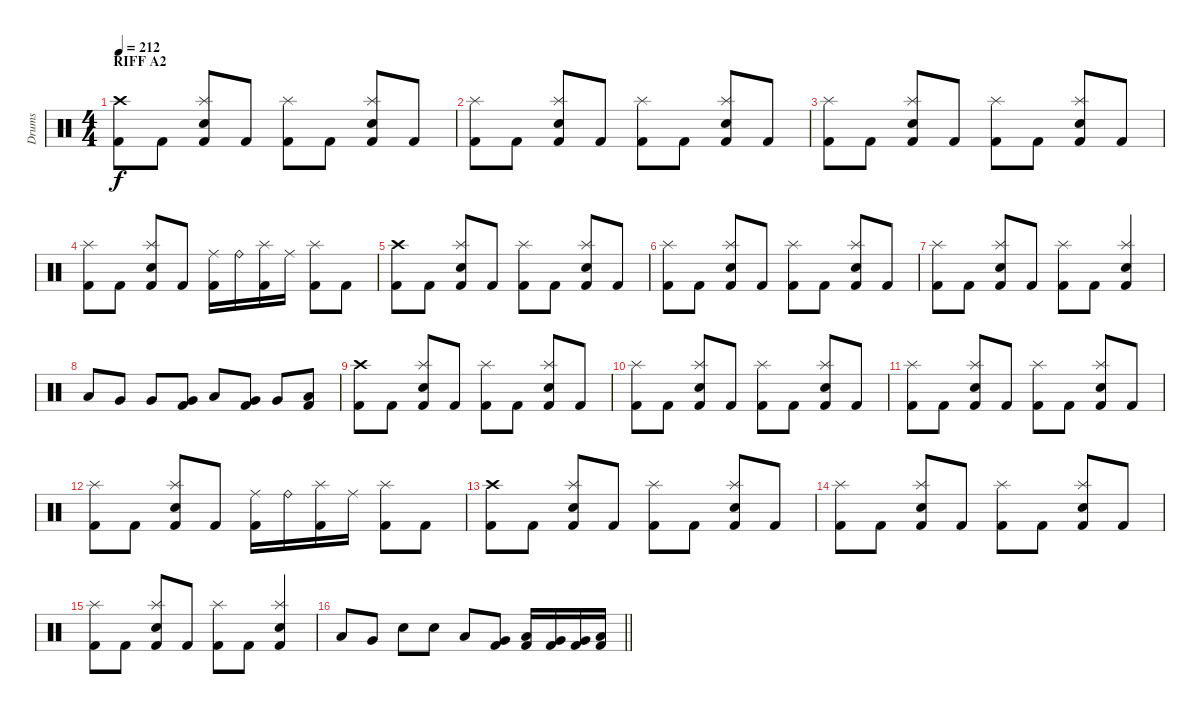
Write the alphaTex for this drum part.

\track ("Drums" "Drums") {instrument percussion}
\staff {score}
\articulation defaults
\ts (4 4)
\section ("" "RIFF A2")
\tempo 212
\clef neutral
\ks c
("Crash high (hit)" "Kick (hit) 2").8{dy f} "Kick (hit) 2".8 ("Splash (hit)" "Snare (hit) 2" "Kick (hit) 2").8 "Kick (hit) 2".8 ("Splash (hit)" "Kick (hit) 2").8 "Kick (hit) 2".8 ("Splash (hit)" "Snare (hit) 2" "Kick (hit) 2").8 "Kick (hit) 2".8 |
("Splash (hit)" "Kick (hit) 2").8 "Kick (hit) 2".8 ("Splash (hit)" "Snare (hit) 2" "Kick (hit) 2").8 "Kick (hit) 2".8 ("Splash (hit)" "Kick (hit) 2").8 "Kick (hit) 2".8 ("Splash (hit)" "Snare (hit) 2" "Kick (hit) 2").8 "Kick (hit) 2".8 |
("Splash (hit)" "Kick (hit) 2").8 "Kick (hit) 2".8 ("Splash (hit)" "Snare (hit) 2" "Kick (hit) 2").8 "Kick (hit) 2".8 ("Splash (hit)" "Kick (hit) 2").8 "Kick (hit) 2".8 ("Splash (hit)" "Snare (hit) 2" "Kick (hit) 2").8 "Kick (hit) 2".8 |
("Splash (hit)" "Kick (hit) 2").8 "Kick (hit) 2".8 ("Splash (hit)" "Snare (hit) 2" "Kick (hit) 2").8 "Kick (hit) 2".8 ("Ride (middle)" "Kick (hit) 2").16 "Ride (bell)".16 ("Splash (hit)" "Kick (hit) 2").16 "Ride (middle)".16 ("Splash (hit)" "Kick (hit) 2").8 "Kick (hit) 2".8 |
("Crash high (hit)" "Kick (hit) 2").8 "Kick (hit) 2".8 ("Splash (hit)" "Snare (hit) 2" "Kick (hit) 2").8 "Kick (hit) 2".8 ("Splash (hit)" "Kick (hit) 2").8 "Kick (hit) 2".8 ("Splash (hit)" "Snare (hit) 2" "Kick (hit) 2").8 "Kick (hit) 2".8 |
("Splash (hit)" "Kick (hit) 2").8 "Kick (hit) 2".8 ("Splash (hit)" "Snare (hit) 2" "Kick (hit) 2").8 "Kick (hit) 2".8 ("Splash (hit)" "Kick (hit) 2").8 "Kick (hit) 2".8 ("Splash (hit)" "Snare (hit) 2" "Kick (hit) 2").8 "Kick (hit) 2".8 |
("Splash (hit)" "Kick (hit) 2").8 "Kick (hit) 2".8 ("Splash (hit)" "Snare (hit) 2" "Kick (hit) 2").8 "Kick (hit) 2".8 ("Splash (hit)" "Kick (hit) 2").8 "Kick (hit) 2".8 ("Splash (hit)" "Snare (hit) 2" "Kick (hit) 2").4 |
"Low Tom (hit)".8 "Very Low Tom (hit)".8 "Very Low Tom (hit)".8 ("Very Low Tom (hit)" "Kick (hit) 2").8 "Low Tom (hit)".8 ("Very Low Tom (hit)" "Kick (hit) 2").8 "Very Low Tom (hit)".8 ("Low Floor Tom (hit)" "Kick (hit) 2").8 |
("Crash high (hit)" "Kick (hit) 2").8 "Kick (hit) 2".8 ("Splash (hit)" "Snare (hit) 2" "Kick (hit) 2").8 "Kick (hit) 2".8 ("Splash (hit)" "Kick (hit) 2").8 "Kick (hit) 2".8 ("Splash (hit)" "Snare (hit) 2" "Kick (hit) 2").8 "Kick (hit) 2".8 |
("Splash (hit)" "Kick (hit) 2").8 "Kick (hit) 2".8 ("Splash (hit)" "Snare (hit) 2" "Kick (hit) 2").8 "Kick (hit) 2".8 ("Splash (hit)" "Kick (hit) 2").8 "Kick (hit) 2".8 ("Splash (hit)" "Snare (hit) 2" "Kick (hit) 2").8 "Kick (hit) 2".8 |
("Splash (hit)" "Kick (hit) 2").8 "Kick (hit) 2".8 ("Splash (hit)" "Snare (hit) 2" "Kick (hit) 2").8 "Kick (hit) 2".8 ("Splash (hit)" "Kick (hit) 2").8 "Kick (hit) 2".8 ("Splash (hit)" "Snare (hit) 2" "Kick (hit) 2").8 "Kick (hit) 2".8 |
("Splash (hit)" "Kick (hit) 2").8 "Kick (hit) 2".8 ("Splash (hit)" "Snare (hit) 2" "Kick (hit) 2").8 "Kick (hit) 2".8 ("Ride (middle)" "Kick (hit) 2").16 "Ride (bell)".16 ("Splash (hit)" "Kick (hit) 2").16 "Ride (middle)".16 ("Splash (hit)" "Kick (hit) 2").8 "Kick (hit) 2".8 |
("Crash high (hit)" "Kick (hit) 2").8 "Kick (hit) 2".8 ("Splash (hit)" "Snare (hit) 2" "Kick (hit) 2").8 "Kick (hit) 2".8 ("Splash (hit)" "Kick (hit) 2").8 "Kick (hit) 2".8 ("Splash (hit)" "Snare (hit) 2" "Kick (hit) 2").8 "Kick (hit) 2".8 |
("Splash (hit)" "Kick (hit) 2").8 "Kick (hit) 2".8 ("Splash (hit)" "Snare (hit) 2" "Kick (hit) 2").8 "Kick (hit) 2".8 ("Splash (hit)" "Kick (hit) 2").8 "Kick (hit) 2".8 ("Splash (hit)" "Snare (hit) 2" "Kick (hit) 2").8 "Kick (hit) 2".8 |
("Splash (hit)" "Kick (hit) 2").8 "Kick (hit) 2".8 ("Splash (hit)" "Snare (hit) 2" "Kick (hit) 2").8 "Kick (hit) 2".8 ("Splash (hit)" "Kick (hit) 2").8 "Kick (hit) 2".8 ("Splash (hit)" "Snare (hit) 2" "Kick (hit) 2").4 |
\barLineRight lightlight "Low Tom (hit)".8 "Very Low Tom (hit)".8 "Snare (hit) 2".8 "Snare (hit) 2".8 "Low Tom (hit)".8
("Very Low Tom (hit)" "Kick (hit) 2").8 ("Low Tom (hit)" "Kick (hit) 2").16 ("Very Low Tom (hit)" "Kick (hit) 2").16 ("Very Low Tom (hit)" "Kick (hit) 2").16 ("Low Floor Tom (hit)" "Kick (hit) 2").16
